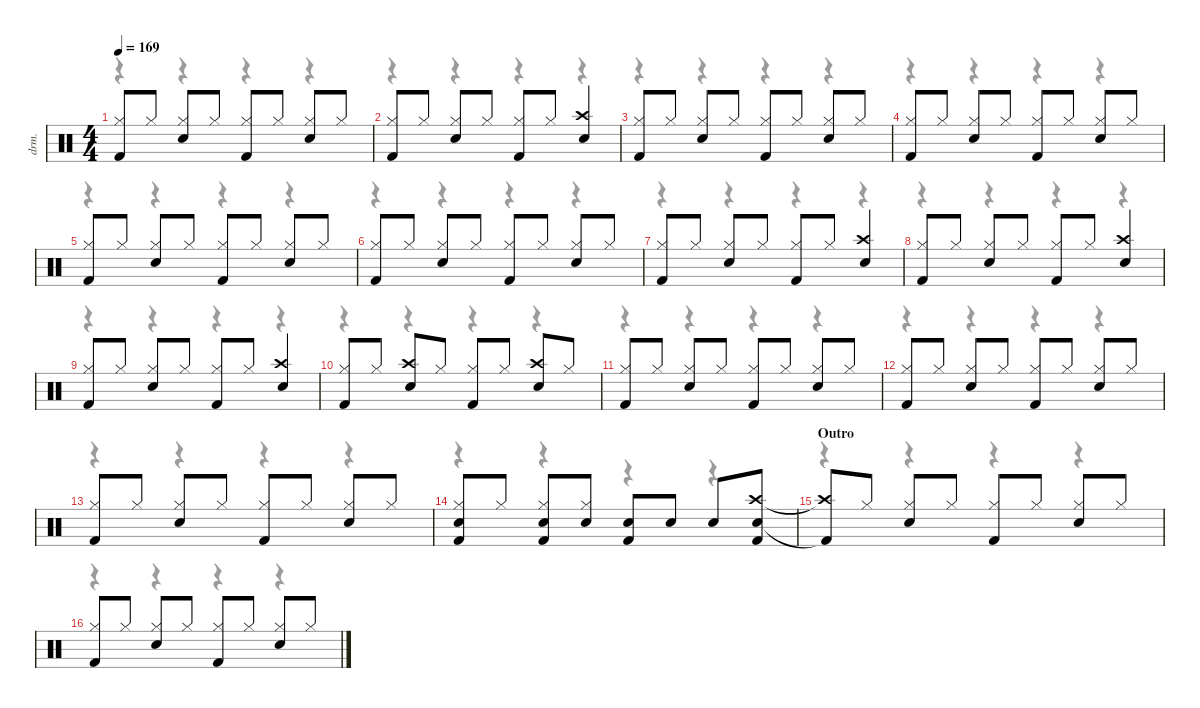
\defaultSystemsLayout 4
\hideDynamics
\bracketExtendMode nobrackets
\otherSystemsTrackNameOrientation horizontal
\track ("Drums" "drm.") {instrument percussion}
\staff {score}
\articulation defaults
\voice
\ts (4 4)
\tempo 169
\clef neutral
\ks c
("Hi-Hat (closed)" "Kick (hit) 2").8{dy f} "Hi-Hat (closed)".8 ("Hi-Hat (closed)" "Snare (hit) 2").8 "Hi-Hat (closed)".8 ("Hi-Hat (closed)" "Kick (hit) 2").8 "Hi-Hat (closed)".8 ("Hi-Hat (closed)" "Snare (hit) 2").8 "Hi-Hat (closed)".8 |
("Hi-Hat (closed)" "Kick (hit) 2").8 "Hi-Hat (closed)".8 ("Hi-Hat (closed)" "Snare (hit) 2").8 "Hi-Hat (closed)".8 ("Hi-Hat (closed)" "Kick (hit) 2").8 "Hi-Hat (closed)".8 ("Crash high (hit)" "Snare (hit) 2").4 |
("Hi-Hat (closed)" "Kick (hit) 2").8 "Hi-Hat (closed)".8 ("Hi-Hat (closed)" "Snare (hit) 2").8 "Hi-Hat (closed)".8 ("Hi-Hat (closed)" "Kick (hit) 2").8 "Hi-Hat (closed)".8 ("Hi-Hat (closed)" "Snare (hit) 2").8 "Hi-Hat (closed)".8 |
("Hi-Hat (closed)" "Kick (hit) 2").8 "Hi-Hat (closed)".8 ("Hi-Hat (closed)" "Snare (hit) 2").8 "Hi-Hat (closed)".8 ("Hi-Hat (closed)" "Kick (hit) 2").8 "Hi-Hat (closed)".8 ("Hi-Hat (closed)" "Snare (hit) 2").8 "Hi-Hat (closed)".8 |
("Hi-Hat (closed)" "Kick (hit) 2").8 "Hi-Hat (closed)".8 ("Hi-Hat (closed)" "Snare (hit) 2").8 "Hi-Hat (closed)".8 ("Hi-Hat (closed)" "Kick (hit) 2").8 "Hi-Hat (closed)".8 ("Hi-Hat (closed)" "Snare (hit) 2").8 "Hi-Hat (closed)".8 |
("Hi-Hat (closed)" "Kick (hit) 2").8 "Hi-Hat (closed)".8 ("Hi-Hat (closed)" "Snare (hit) 2").8 "Hi-Hat (closed)".8 ("Hi-Hat (closed)" "Kick (hit) 2").8 "Hi-Hat (closed)".8 ("Hi-Hat (closed)" "Snare (hit) 2").8 "Hi-Hat (closed)".8 |
("Hi-Hat (closed)" "Kick (hit) 2").8 "Hi-Hat (closed)".8 ("Hi-Hat (closed)" "Snare (hit) 2").8 "Hi-Hat (closed)".8 ("Hi-Hat (closed)" "Kick (hit) 2").8 "Hi-Hat (closed)".8 ("Crash high (hit)" "Snare (hit) 2").4 |
("Hi-Hat (closed)" "Kick (hit) 2").8 "Hi-Hat (closed)".8 ("Hi-Hat (closed)" "Snare (hit) 2").8 "Hi-Hat (closed)".8 ("Hi-Hat (closed)" "Kick (hit) 2").8 "Hi-Hat (closed)".8 ("Crash high (hit)" "Snare (hit) 2").4 |
("Hi-Hat (closed)" "Kick (hit) 2").8 "Hi-Hat (closed)".8 ("Hi-Hat (closed)" "Snare (hit) 2").8 "Hi-Hat (closed)".8 ("Hi-Hat (closed)" "Kick (hit) 2").8 "Hi-Hat (closed)".8 ("Crash high (hit)" "Snare (hit) 2").4 |
("Hi-Hat (closed)" "Kick (hit) 2").8 "Hi-Hat (closed)".8 ("Crash high (hit)" "Snare (hit) 2").8 "Hi-Hat (closed)".8 ("Hi-Hat (closed)" "Kick (hit) 2").8 "Hi-Hat (closed)".8 ("Crash high (hit)" "Snare (hit) 2").8 "Hi-Hat (closed)".8 |
("Hi-Hat (closed)" "Kick (hit) 2").8 "Hi-Hat (closed)".8 ("Hi-Hat (closed)" "Snare (hit) 2").8 "Hi-Hat (closed)".8 ("Hi-Hat (closed)" "Kick (hit) 2").8 "Hi-Hat (closed)".8 ("Hi-Hat (closed)" "Snare (hit) 2").8 "Hi-Hat (closed)".8 |
("Hi-Hat (closed)" "Kick (hit) 2").8 "Hi-Hat (closed)".8 ("Hi-Hat (closed)" "Snare (hit) 2").8 "Hi-Hat (closed)".8 ("Hi-Hat (closed)" "Kick (hit) 2").8 "Hi-Hat (closed)".8 ("Hi-Hat (closed)" "Snare (hit) 2").8 "Hi-Hat (closed)".8 |
("Hi-Hat (closed)" "Kick (hit) 2").8 "Hi-Hat (closed)".8 ("Hi-Hat (closed)" "Snare (hit) 2").8 "Hi-Hat (closed)".8 ("Hi-Hat (closed)" "Kick (hit) 2").8 "Hi-Hat (closed)".8 ("Hi-Hat (closed)" "Snare (hit) 2").8 "Hi-Hat (closed)".8 |
("Hi-Hat (closed)" "Snare (hit) 2" "Kick (hit) 2").8 "Hi-Hat (closed)".8 ("Hi-Hat (closed)" "Snare (hit) 2" "Kick (hit) 2").8 ("Hi-Hat (closed)" "Snare (hit) 2").8 ("Snare (hit) 2" "Kick (hit) 2").8{dy mf} "Snare (hit) 2".8{dy ff} "Snare (hit) 2".8 ("Crash high (hit)" "Snare (hit) 2" "Kick (hit) 2").8{dy f} |
\section ("" "Outro")
("Crash high (hit)"{t} "Kick (hit) 2"{t}).8 "Hi-Hat (closed)".8 ("Hi-Hat (closed)" "Snare (hit) 2").8 "Hi-Hat (closed)".8 ("Hi-Hat (closed)" "Kick (hit) 2").8 "Hi-Hat (closed)".8 ("Hi-Hat (closed)" "Snare (hit) 2").8 "Hi-Hat (closed)".8 |
("Hi-Hat (closed)" "Kick (hit) 2").8 "Hi-Hat (closed)".8 ("Hi-Hat (closed)" "Snare (hit) 2").8 "Hi-Hat (closed)".8 ("Hi-Hat (closed)" "Kick (hit) 2").8 "Hi-Hat (closed)".8 ("Hi-Hat (closed)" "Snare (hit) 2").8 "Hi-Hat (closed)".8
\voice
\clef neutral
\ottava regular
\simile none
\ks c
r.4{dy mf} r.4 r.4 r.4 |
r.4 r.4 r.4 r.4 |
r.4 r.4 r.4 r.4 |
r.4 r.4 r.4 r.4 |
r.4 r.4 r.4 r.4 |
r.4 r.4 r.4 r.4 |
r.4 r.4 r.4 r.4 |
r.4 r.4 r.4 r.4 |
r.4 r.4 r.4 r.4 |
r.4 r.4 r.4 r.4 |
r.4 r.4 r.4 r.4 |
r.4 r.4 r.4 r.4 |
r.4 r.4 r.4 r.4 |
r.4 r.4 r.4 r.4 |
r.4 r.4 r.4 r.4 |
r.4 r.4 r.4 r.4
